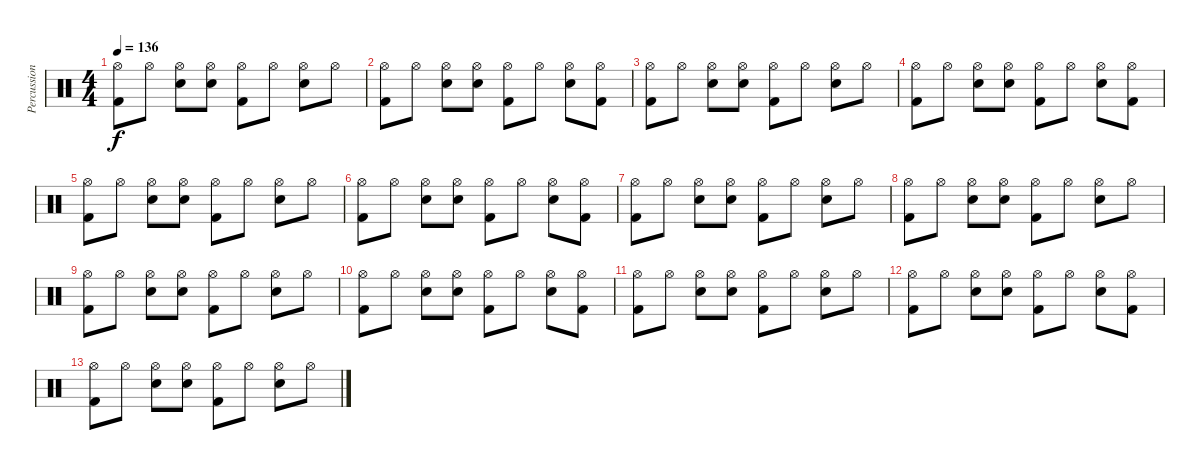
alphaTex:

\track ("Percussion" "Percussion") {instrument percussion}
\staff {score}
\articulation defaults
\ts (4 4)
\tempo 136
\clef neutral
\ks c
("Hi-Hat (open)" "Kick (hit) 2").8{dy f} "Hi-Hat (open)".8 ("Hi-Hat (open)" "Snare (hit) 2").8 ("Hi-Hat (open)" "Snare (hit) 2").8 ("Hi-Hat (open)" "Kick (hit) 2").8 "Hi-Hat (open)".8 ("Hi-Hat (open)" "Snare (hit) 2").8 "Hi-Hat (open)".8 |
("Hi-Hat (open)" "Kick (hit) 2").8 "Hi-Hat (open)".8 ("Hi-Hat (open)" "Snare (hit) 2").8 ("Hi-Hat (open)" "Snare (hit) 2").8 ("Hi-Hat (open)" "Kick (hit) 2").8 "Hi-Hat (open)".8 ("Hi-Hat (open)" "Snare (hit) 2").8 ("Hi-Hat (open)" "Kick (hit) 2").8 |
("Hi-Hat (open)" "Kick (hit) 2").8 "Hi-Hat (open)".8 ("Hi-Hat (open)" "Snare (hit) 2").8 ("Hi-Hat (open)" "Snare (hit) 2").8 ("Hi-Hat (open)" "Kick (hit) 2").8 "Hi-Hat (open)".8 ("Hi-Hat (open)" "Snare (hit) 2").8 "Hi-Hat (open)".8 |
("Hi-Hat (open)" "Kick (hit) 2").8 "Hi-Hat (open)".8 ("Hi-Hat (open)" "Snare (hit) 2").8 ("Hi-Hat (open)" "Snare (hit) 2").8 ("Hi-Hat (open)" "Kick (hit) 2").8 "Hi-Hat (open)".8 ("Hi-Hat (open)" "Snare (hit) 2").8 ("Hi-Hat (open)" "Kick (hit) 2").8 |
("Hi-Hat (open)" "Kick (hit) 2").8 "Hi-Hat (open)".8 ("Hi-Hat (open)" "Snare (hit) 2").8 ("Hi-Hat (open)" "Snare (hit) 2").8 ("Hi-Hat (open)" "Kick (hit) 2").8 "Hi-Hat (open)".8 ("Hi-Hat (open)" "Snare (hit) 2").8 "Hi-Hat (open)".8 |
("Hi-Hat (open)" "Kick (hit) 2").8 "Hi-Hat (open)".8 ("Hi-Hat (open)" "Snare (hit) 2").8 ("Hi-Hat (open)" "Snare (hit) 2").8 ("Hi-Hat (open)" "Kick (hit) 2").8 "Hi-Hat (open)".8 ("Hi-Hat (open)" "Snare (hit) 2").8 ("Hi-Hat (open)" "Kick (hit) 2").8 |
("Hi-Hat (open)" "Kick (hit) 2").8 "Hi-Hat (open)".8 ("Hi-Hat (open)" "Snare (hit) 2").8 ("Hi-Hat (open)" "Snare (hit) 2").8 ("Hi-Hat (open)" "Kick (hit) 2").8 "Hi-Hat (open)".8 ("Hi-Hat (open)" "Snare (hit) 2").8 "Hi-Hat (open)".8 |
("Hi-Hat (open)" "Kick (hit) 2").8 "Hi-Hat (open)".8 ("Hi-Hat (open)" "Snare (hit) 2").8 ("Hi-Hat (open)" "Snare (hit) 2").8 ("Hi-Hat (open)" "Kick (hit) 2").8 "Hi-Hat (open)".8 ("Hi-Hat (open)" "Snare (hit) 2").8 "Hi-Hat (open)".8 |
("Hi-Hat (open)" "Kick (hit) 2").8 "Hi-Hat (open)".8 ("Hi-Hat (open)" "Snare (hit) 2").8 ("Hi-Hat (open)" "Snare (hit) 2").8 ("Hi-Hat (open)" "Kick (hit) 2").8 "Hi-Hat (open)".8 ("Hi-Hat (open)" "Snare (hit) 2").8 "Hi-Hat (open)".8 |
("Hi-Hat (open)" "Kick (hit) 2").8 "Hi-Hat (open)".8 ("Hi-Hat (open)" "Snare (hit) 2").8 ("Hi-Hat (open)" "Snare (hit) 2").8 ("Hi-Hat (open)" "Kick (hit) 2").8 "Hi-Hat (open)".8 ("Hi-Hat (open)" "Snare (hit) 2").8 ("Hi-Hat (open)" "Kick (hit) 2").8 |
("Hi-Hat (open)" "Kick (hit) 2").8 "Hi-Hat (open)".8 ("Hi-Hat (open)" "Snare (hit) 2").8 ("Hi-Hat (open)" "Snare (hit) 2").8 ("Hi-Hat (open)" "Kick (hit) 2").8 "Hi-Hat (open)".8 ("Hi-Hat (open)" "Snare (hit) 2").8 "Hi-Hat (open)".8 |
("Hi-Hat (open)" "Kick (hit) 2").8 "Hi-Hat (open)".8 ("Hi-Hat (open)" "Snare (hit) 2").8 ("Hi-Hat (open)" "Snare (hit) 2").8 ("Hi-Hat (open)" "Kick (hit) 2").8 "Hi-Hat (open)".8 ("Hi-Hat (open)" "Snare (hit) 2").8 ("Hi-Hat (open)" "Kick (hit) 2").8 |
("Hi-Hat (open)" "Kick (hit) 2").8 "Hi-Hat (open)".8 ("Hi-Hat (open)" "Snare (hit) 2").8 ("Hi-Hat (open)" "Snare (hit) 2").8 ("Hi-Hat (open)" "Kick (hit) 2").8 "Hi-Hat (open)".8 ("Hi-Hat (open)" "Snare (hit) 2").8 "Hi-Hat (open)".8
